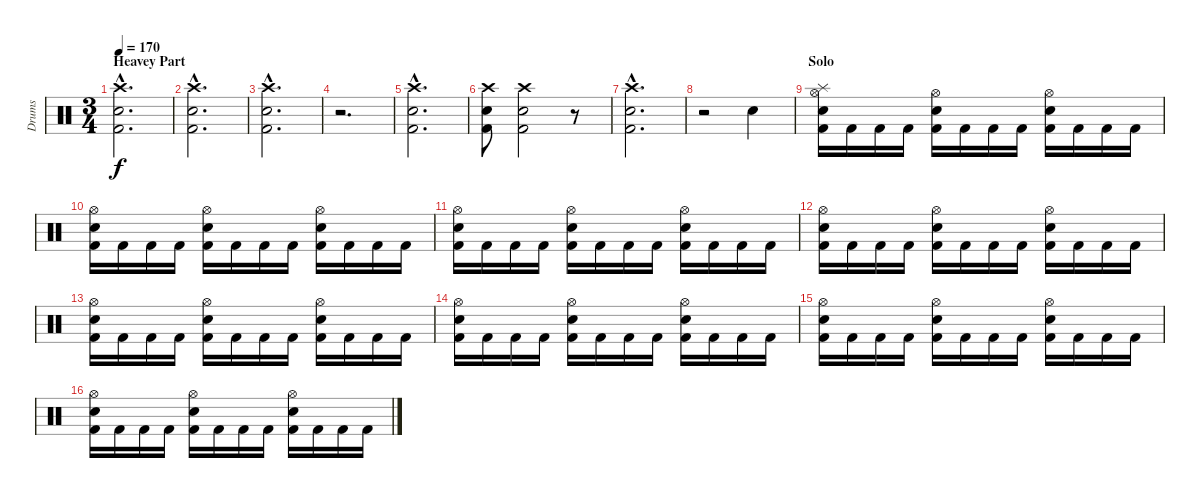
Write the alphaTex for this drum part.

\track ("Drums" "Drums") {instrument percussion}
\staff {score}
\articulation defaults
\ts (3 4)
\section ("" "Heavey Part")
\tempo 170
\clef neutral
\ks c
("Kick (hit) 2"{hac} "Snare (hit) 2"{hac} "Crash high (hit)"{hac}).2{d dy f} |
("Kick (hit) 2"{hac} "Snare (hit) 2"{hac} "Crash high (hit)"{hac}).2{d} |
("Kick (hit) 2"{hac} "Snare (hit) 2"{hac} "Crash high (hit)"{hac}).2{d} |
r.2{d} |
("Kick (hit) 2"{hac} "Snare (hit) 2"{hac} "Crash high (hit)"{hac}).2{d} |
("Kick (hit) 2" "Snare (hit) 2" "Crash high (hit)").8 ("Kick (hit) 2" "Snare (hit) 2" "Crash high (hit)").2 r.8 |
("Kick (hit) 2"{hac} "Snare (hit) 2"{hac} "Crash high (hit)"{hac}).2{d} |
r.2 "Snare (hit) 2".4 |
\section ("" "Solo")
("Kick (hit) 2" "Snare (hit) 2" "Hi-Hat (open)" "Splash (hit)").16 "Kick (hit) 2".16 "Kick (hit) 2".16 "Kick (hit) 2".16 ("Kick (hit) 2" "Snare (hit) 2" "Hi-Hat (open)").16 "Kick (hit) 2".16 "Kick (hit) 2".16 "Kick (hit) 2".16 ("Kick (hit) 2" "Snare (hit) 2" "Hi-Hat (open)").16 "Kick (hit) 2".16 "Kick (hit) 2".16 "Kick (hit) 2".16 |
("Kick (hit) 2" "Snare (hit) 2" "Hi-Hat (open)").16 "Kick (hit) 2".16 "Kick (hit) 2".16 "Kick (hit) 2".16 ("Kick (hit) 2" "Snare (hit) 2" "Hi-Hat (open)").16 "Kick (hit) 2".16 "Kick (hit) 2".16 "Kick (hit) 2".16 ("Kick (hit) 2" "Snare (hit) 2" "Hi-Hat (open)").16 "Kick (hit) 2".16 "Kick (hit) 2".16 "Kick (hit) 2".16 |
("Kick (hit) 2" "Snare (hit) 2" "Hi-Hat (open)").16 "Kick (hit) 2".16 "Kick (hit) 2".16 "Kick (hit) 2".16 ("Kick (hit) 2" "Snare (hit) 2" "Hi-Hat (open)").16 "Kick (hit) 2".16 "Kick (hit) 2".16 "Kick (hit) 2".16 ("Kick (hit) 2" "Snare (hit) 2" "Hi-Hat (open)").16 "Kick (hit) 2".16 "Kick (hit) 2".16 "Kick (hit) 2".16 |
("Kick (hit) 2" "Snare (hit) 2" "Hi-Hat (open)").16 "Kick (hit) 2".16 "Kick (hit) 2".16 "Kick (hit) 2".16 ("Kick (hit) 2" "Snare (hit) 2" "Hi-Hat (open)").16 "Kick (hit) 2".16 "Kick (hit) 2".16 "Kick (hit) 2".16 ("Kick (hit) 2" "Snare (hit) 2" "Hi-Hat (open)").16 "Kick (hit) 2".16 "Kick (hit) 2".16 "Kick (hit) 2".16 |
("Kick (hit) 2" "Snare (hit) 2" "Hi-Hat (open)").16 "Kick (hit) 2".16 "Kick (hit) 2".16 "Kick (hit) 2".16 ("Kick (hit) 2" "Snare (hit) 2" "Hi-Hat (open)").16 "Kick (hit) 2".16 "Kick (hit) 2".16 "Kick (hit) 2".16 ("Kick (hit) 2" "Snare (hit) 2" "Hi-Hat (open)").16 "Kick (hit) 2".16 "Kick (hit) 2".16 "Kick (hit) 2".16 |
("Kick (hit) 2" "Snare (hit) 2" "Hi-Hat (open)").16 "Kick (hit) 2".16 "Kick (hit) 2".16 "Kick (hit) 2".16 ("Kick (hit) 2" "Snare (hit) 2" "Hi-Hat (open)").16 "Kick (hit) 2".16 "Kick (hit) 2".16 "Kick (hit) 2".16 ("Kick (hit) 2" "Snare (hit) 2" "Hi-Hat (open)").16 "Kick (hit) 2".16 "Kick (hit) 2".16 "Kick (hit) 2".16 |
("Kick (hit) 2" "Snare (hit) 2" "Hi-Hat (open)").16 "Kick (hit) 2".16 "Kick (hit) 2".16 "Kick (hit) 2".16 ("Kick (hit) 2" "Snare (hit) 2" "Hi-Hat (open)").16 "Kick (hit) 2".16 "Kick (hit) 2".16 "Kick (hit) 2".16 ("Kick (hit) 2" "Snare (hit) 2" "Hi-Hat (open)").16 "Kick (hit) 2".16 "Kick (hit) 2".16 "Kick (hit) 2".16 |
("Kick (hit) 2" "Snare (hit) 2" "Hi-Hat (open)").16 "Kick (hit) 2".16 "Kick (hit) 2".16 "Kick (hit) 2".16 ("Kick (hit) 2" "Snare (hit) 2" "Hi-Hat (open)").16 "Kick (hit) 2".16 "Kick (hit) 2".16 "Kick (hit) 2".16 ("Kick (hit) 2" "Snare (hit) 2" "Hi-Hat (open)").16 "Kick (hit) 2".16 "Kick (hit) 2".16 "Kick (hit) 2".16
